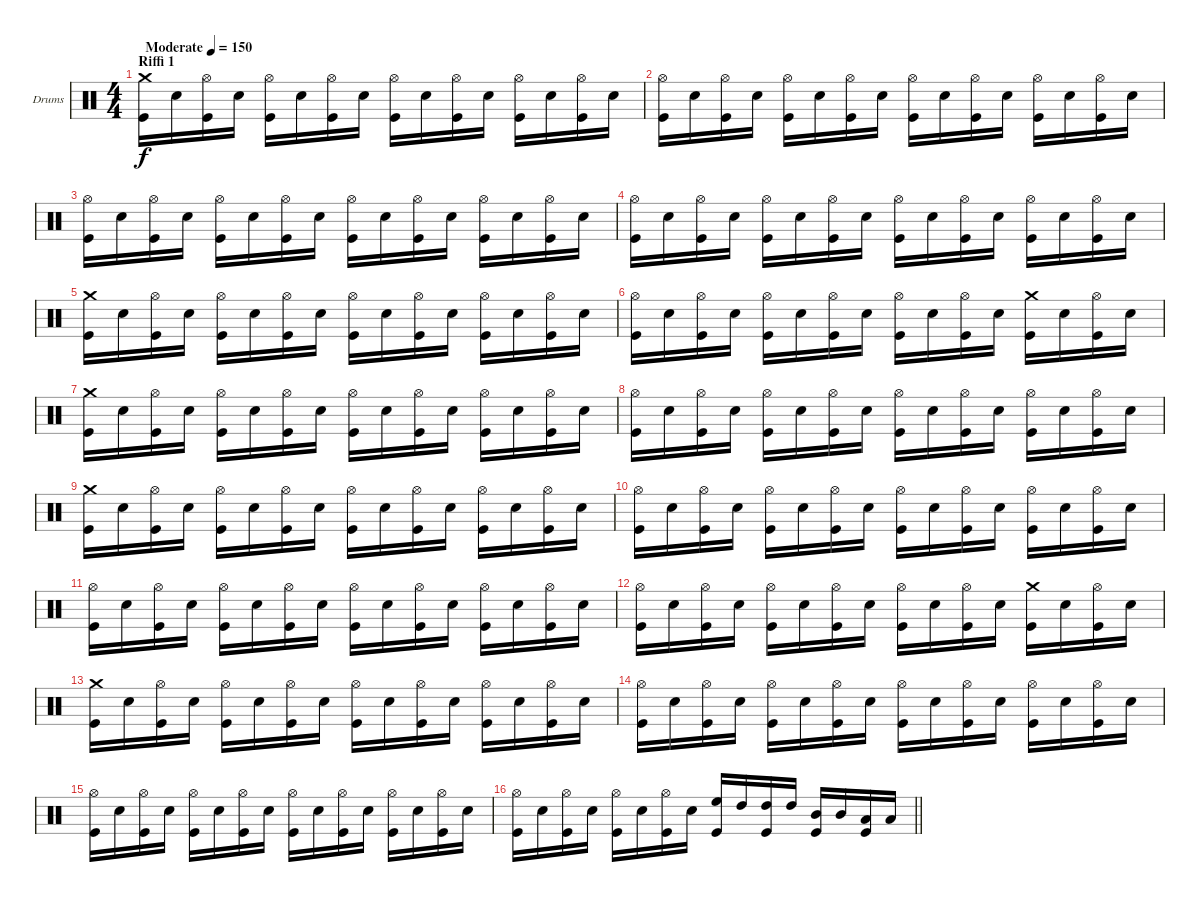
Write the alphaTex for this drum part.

\bracketExtendMode groupsimilarinstruments
\firstSystemTrackNameOrientation horizontal
\otherSystemsTrackNameOrientation horizontal
\track ("Drumkit" "Drums") {instrument percussion}
\staff {score}
\articulation defaults
\ts (4 4)
\beaming (8 2 2 2 2)
\section ("" "Riffi 1")
\tempo (150 "Moderate")
\clef neutral
\ks c
("Crash medium (hit)" "Kick (hit)").16{dy f} "Snare (hit) 2".16 ("Hi-Hat (open)" "Kick (hit)").16 "Snare (hit) 2".16 ("Hi-Hat (open)" "Kick (hit)").16 "Snare (hit) 2".16 ("Hi-Hat (open)" "Kick (hit)").16 "Snare (hit) 2".16 ("Hi-Hat (open)" "Kick (hit)").16 "Snare (hit) 2".16 ("Hi-Hat (open)" "Kick (hit)").16 "Snare (hit) 2".16 ("Hi-Hat (open)" "Kick (hit)").16 "Snare (hit) 2".16 ("Hi-Hat (open)" "Kick (hit)").16 "Snare (hit) 2".16 |
("Hi-Hat (open)" "Kick (hit)").16 "Snare (hit) 2".16 ("Hi-Hat (open)" "Kick (hit)").16 "Snare (hit) 2".16 ("Hi-Hat (open)" "Kick (hit)").16 "Snare (hit) 2".16 ("Hi-Hat (open)" "Kick (hit)").16 "Snare (hit) 2".16 ("Hi-Hat (open)" "Kick (hit)").16 "Snare (hit) 2".16 ("Hi-Hat (open)" "Kick (hit)").16 "Snare (hit) 2".16 ("Hi-Hat (open)" "Kick (hit)").16 "Snare (hit) 2".16 ("Hi-Hat (open)" "Kick (hit)").16 "Snare (hit) 2".16 |
("Hi-Hat (open)" "Kick (hit)").16 "Snare (hit) 2".16 ("Hi-Hat (open)" "Kick (hit)").16 "Snare (hit) 2".16 ("Hi-Hat (open)" "Kick (hit)").16 "Snare (hit) 2".16 ("Hi-Hat (open)" "Kick (hit)").16 "Snare (hit) 2".16 ("Hi-Hat (open)" "Kick (hit)").16 "Snare (hit) 2".16 ("Hi-Hat (open)" "Kick (hit)").16 "Snare (hit) 2".16 ("Hi-Hat (open)" "Kick (hit)").16 "Snare (hit) 2".16 ("Hi-Hat (open)" "Kick (hit)").16 "Snare (hit) 2".16 |
("Hi-Hat (open)" "Kick (hit)").16 "Snare (hit) 2".16 ("Hi-Hat (open)" "Kick (hit)").16 "Snare (hit) 2".16 ("Hi-Hat (open)" "Kick (hit)").16 "Snare (hit) 2".16 ("Hi-Hat (open)" "Kick (hit)").16 "Snare (hit) 2".16 ("Hi-Hat (open)" "Kick (hit)").16 "Snare (hit) 2".16 ("Hi-Hat (open)" "Kick (hit)").16 "Snare (hit) 2".16 ("Hi-Hat (open)" "Kick (hit)").16 "Snare (hit) 2".16 ("Hi-Hat (open)" "Kick (hit)").16 "Snare (hit) 2".16 |
("Crash medium (hit)" "Kick (hit)").16 "Snare (hit) 2".16 ("Hi-Hat (open)" "Kick (hit)").16 "Snare (hit) 2".16 ("Hi-Hat (open)" "Kick (hit)").16 "Snare (hit) 2".16 ("Hi-Hat (open)" "Kick (hit)").16 "Snare (hit) 2".16 ("Hi-Hat (open)" "Kick (hit)").16 "Snare (hit) 2".16 ("Hi-Hat (open)" "Kick (hit)").16 "Snare (hit) 2".16 ("Hi-Hat (open)" "Kick (hit)").16 "Snare (hit) 2".16 ("Hi-Hat (open)" "Kick (hit)").16 "Snare (hit) 2".16 |
("Hi-Hat (open)" "Kick (hit)").16 "Snare (hit) 2".16 ("Hi-Hat (open)" "Kick (hit)").16 "Snare (hit) 2".16 ("Hi-Hat (open)" "Kick (hit)").16 "Snare (hit) 2".16 ("Hi-Hat (open)" "Kick (hit)").16 "Snare (hit) 2".16 ("Hi-Hat (open)" "Kick (hit)").16 "Snare (hit) 2".16 ("Hi-Hat (open)" "Kick (hit)").16 "Snare (hit) 2".16 ("Crash medium (hit)" "Kick (hit)").16 "Snare (hit) 2".16 ("Hi-Hat (open)" "Kick (hit)").16 "Snare (hit) 2".16 |
("Crash medium (hit)" "Kick (hit)").16 "Snare (hit) 2".16 ("Hi-Hat (open)" "Kick (hit)").16 "Snare (hit) 2".16 ("Hi-Hat (open)" "Kick (hit)").16 "Snare (hit) 2".16 ("Hi-Hat (open)" "Kick (hit)").16 "Snare (hit) 2".16 ("Hi-Hat (open)" "Kick (hit)").16 "Snare (hit) 2".16 ("Hi-Hat (open)" "Kick (hit)").16 "Snare (hit) 2".16 ("Hi-Hat (open)" "Kick (hit)").16 "Snare (hit) 2".16 ("Hi-Hat (open)" "Kick (hit)").16 "Snare (hit) 2".16 |
("Hi-Hat (open)" "Kick (hit)").16 "Snare (hit) 2".16 ("Hi-Hat (open)" "Kick (hit)").16 "Snare (hit) 2".16 ("Hi-Hat (open)" "Kick (hit)").16 "Snare (hit) 2".16 ("Hi-Hat (open)" "Kick (hit)").16 "Snare (hit) 2".16 ("Hi-Hat (open)" "Kick (hit)").16 "Snare (hit) 2".16 ("Hi-Hat (open)" "Kick (hit)").16 "Snare (hit) 2".16 ("Hi-Hat (open)" "Kick (hit)").16 "Snare (hit) 2".16 ("Hi-Hat (open)" "Kick (hit)").16 "Snare (hit) 2".16 |
("Crash medium (hit)" "Kick (hit)").16 "Snare (hit) 2".16 ("Hi-Hat (open)" "Kick (hit)").16 "Snare (hit) 2".16 ("Hi-Hat (open)" "Kick (hit)").16 "Snare (hit) 2".16 ("Hi-Hat (open)" "Kick (hit)").16 "Snare (hit) 2".16 ("Hi-Hat (open)" "Kick (hit)").16 "Snare (hit) 2".16 ("Hi-Hat (open)" "Kick (hit)").16 "Snare (hit) 2".16 ("Hi-Hat (open)" "Kick (hit)").16 "Snare (hit) 2".16 ("Hi-Hat (open)" "Kick (hit)").16 "Snare (hit) 2".16 |
("Hi-Hat (open)" "Kick (hit)").16 "Snare (hit) 2".16 ("Hi-Hat (open)" "Kick (hit)").16 "Snare (hit) 2".16 ("Hi-Hat (open)" "Kick (hit)").16 "Snare (hit) 2".16 ("Hi-Hat (open)" "Kick (hit)").16 "Snare (hit) 2".16 ("Hi-Hat (open)" "Kick (hit)").16 "Snare (hit) 2".16 ("Hi-Hat (open)" "Kick (hit)").16 "Snare (hit) 2".16 ("Hi-Hat (open)" "Kick (hit)").16 "Snare (hit) 2".16 ("Hi-Hat (open)" "Kick (hit)").16 "Snare (hit) 2".16 |
("Hi-Hat (open)" "Kick (hit)").16 "Snare (hit) 2".16 ("Hi-Hat (open)" "Kick (hit)").16 "Snare (hit) 2".16 ("Hi-Hat (open)" "Kick (hit)").16 "Snare (hit) 2".16 ("Hi-Hat (open)" "Kick (hit)").16 "Snare (hit) 2".16 ("Hi-Hat (open)" "Kick (hit)").16 "Snare (hit) 2".16 ("Hi-Hat (open)" "Kick (hit)").16 "Snare (hit) 2".16 ("Hi-Hat (open)" "Kick (hit)").16 "Snare (hit) 2".16 ("Hi-Hat (open)" "Kick (hit)").16 "Snare (hit) 2".16 |
("Hi-Hat (open)" "Kick (hit)").16 "Snare (hit) 2".16 ("Hi-Hat (open)" "Kick (hit)").16 "Snare (hit) 2".16 ("Hi-Hat (open)" "Kick (hit)").16 "Snare (hit) 2".16 ("Hi-Hat (open)" "Kick (hit)").16 "Snare (hit) 2".16 ("Hi-Hat (open)" "Kick (hit)").16 "Snare (hit) 2".16 ("Hi-Hat (open)" "Kick (hit)").16 "Snare (hit) 2".16 ("Crash medium (hit)" "Kick (hit)").16 "Snare (hit) 2".16 ("Hi-Hat (open)" "Kick (hit)").16 "Snare (hit) 2".16 |
("Crash medium (hit)" "Kick (hit)").16 "Snare (hit) 2".16 ("Hi-Hat (open)" "Kick (hit)").16 "Snare (hit) 2".16 ("Hi-Hat (open)" "Kick (hit)").16 "Snare (hit) 2".16 ("Hi-Hat (open)" "Kick (hit)").16 "Snare (hit) 2".16 ("Hi-Hat (open)" "Kick (hit)").16 "Snare (hit) 2".16 ("Hi-Hat (open)" "Kick (hit)").16 "Snare (hit) 2".16 ("Hi-Hat (open)" "Kick (hit)").16 "Snare (hit) 2".16 ("Hi-Hat (open)" "Kick (hit)").16 "Snare (hit) 2".16 |
("Hi-Hat (open)" "Kick (hit)").16 "Snare (hit) 2".16 ("Hi-Hat (open)" "Kick (hit)").16 "Snare (hit) 2".16 ("Hi-Hat (open)" "Kick (hit)").16 "Snare (hit) 2".16 ("Hi-Hat (open)" "Kick (hit)").16 "Snare (hit) 2".16 ("Hi-Hat (open)" "Kick (hit)").16 "Snare (hit) 2".16 ("Hi-Hat (open)" "Kick (hit)").16 "Snare (hit) 2".16 ("Hi-Hat (open)" "Kick (hit)").16 "Snare (hit) 2".16 ("Hi-Hat (open)" "Kick (hit)").16 "Snare (hit) 2".16 |
("Hi-Hat (open)" "Kick (hit)").16 "Snare (hit) 2".16 ("Hi-Hat (open)" "Kick (hit)").16 "Snare (hit) 2".16 ("Hi-Hat (open)" "Kick (hit)").16 "Snare (hit) 2".16 ("Hi-Hat (open)" "Kick (hit)").16 "Snare (hit) 2".16 ("Hi-Hat (open)" "Kick (hit)").16 "Snare (hit) 2".16 ("Hi-Hat (open)" "Kick (hit)").16 "Snare (hit) 2".16 ("Hi-Hat (open)" "Kick (hit)").16 "Snare (hit) 2".16 ("Hi-Hat (open)" "Kick (hit)").16 "Snare (hit) 2".16 |
\barLineRight lightlight
("Hi-Hat (open)" "Kick (hit)").16 "Snare (hit) 2".16 ("Hi-Hat (open)" "Kick (hit)").16 "Snare (hit) 2".16 ("Hi-Hat (open)" "Kick (hit)").16 "Snare (hit) 2".16 ("Hi-Hat (open)" "Kick (hit)").16 "Snare (hit) 2".16 ("High Floor Tom (hit)" "Kick (hit)").16 "High Tom (hit)".16 ("High Tom (hit)" "Kick (hit)").16 "High Tom (hit)".16 ("Mid Tom (hit)" "Kick (hit)").16 "Mid Tom (hit)".16 ("Low Tom (hit)" "Kick (hit)").16 "Low Tom (hit)".16
